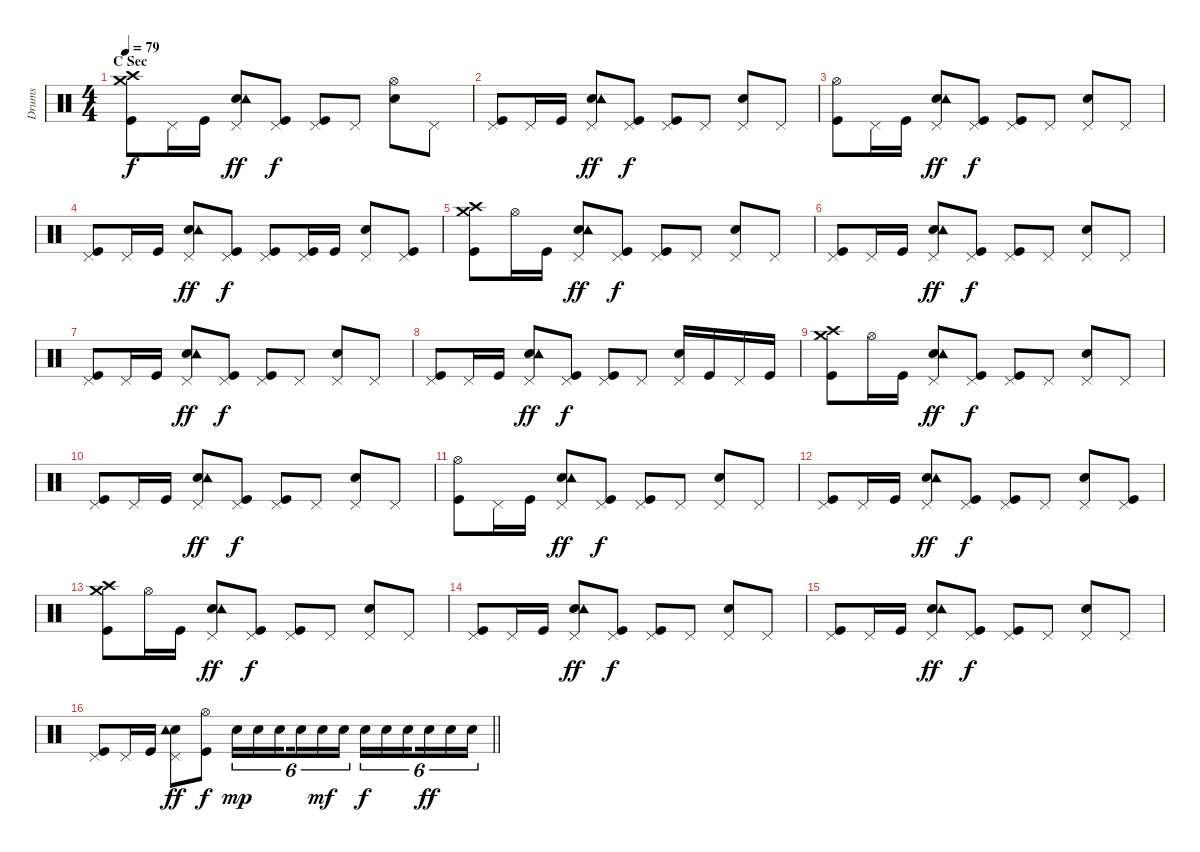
\track ("Drums" "Drums") {instrument percussion}
\staff {score}
\articulation defaults
\ts (4 4)
\section ("" "C Sec")
\tempo 79
\clef neutral
\ks c
("Crash high (hit)" "Crash medium (hit)" "Kick (hit)").8{dy f} "Pedal Hi-Hat (hit)".16 "Kick (hit)".16 ("Electric Snare (hit)" "Pedal Hi-Hat (hit)" "Tambourine (hit)").8{dy ff} ("Pedal Hi-Hat (hit)" "Kick (hit)").8{dy f} ("Pedal Hi-Hat (hit)" "Kick (hit)").8 "Pedal Hi-Hat (hit)".8 ("Electric Snare (hit)" "Hi-Hat (open)").8 "Pedal Hi-Hat (hit)".8 |
("Pedal Hi-Hat (hit)" "Kick (hit)").8 "Pedal Hi-Hat (hit)".16 "Kick (hit)".16 ("Electric Snare (hit)" "Pedal Hi-Hat (hit)" "Tambourine (hit)").8{dy ff} ("Pedal Hi-Hat (hit)" "Kick (hit)").8{dy f} ("Pedal Hi-Hat (hit)" "Kick (hit)").8 "Pedal Hi-Hat (hit)".8 ("Electric Snare (hit)" "Pedal Hi-Hat (hit)").8 "Pedal Hi-Hat (hit)".8 |
("Hi-Hat (open)" "Kick (hit)").8 "Pedal Hi-Hat (hit)".16 "Kick (hit)".16 ("Electric Snare (hit)" "Pedal Hi-Hat (hit)" "Tambourine (hit)").8{dy ff} ("Pedal Hi-Hat (hit)" "Kick (hit)").8{dy f} ("Pedal Hi-Hat (hit)" "Kick (hit)").8 "Pedal Hi-Hat (hit)".8 ("Electric Snare (hit)" "Pedal Hi-Hat (hit)").8 "Pedal Hi-Hat (hit)".8 |
("Pedal Hi-Hat (hit)" "Kick (hit)").8 "Pedal Hi-Hat (hit)".16 "Kick (hit)".16 ("Electric Snare (hit)" "Pedal Hi-Hat (hit)" "Tambourine (hit)").8{dy ff} ("Pedal Hi-Hat (hit)" "Kick (hit)").8{dy f} ("Pedal Hi-Hat (hit)" "Kick (hit)").8 ("Pedal Hi-Hat (hit)" "Kick (hit)").16 "Kick (hit)".16 ("Electric Snare (hit)" "Pedal Hi-Hat (hit)").8 ("Pedal Hi-Hat (hit)" "Kick (hit)").8 |
("Crash high (hit)" "Crash medium (hit)" "Kick (hit)").8 "Hi-Hat (open)".16 "Kick (hit)".16 ("Electric Snare (hit)" "Pedal Hi-Hat (hit)" "Tambourine (hit)").8{dy ff} ("Pedal Hi-Hat (hit)" "Kick (hit)").8{dy f} ("Pedal Hi-Hat (hit)" "Kick (hit)").8 "Pedal Hi-Hat (hit)".8 ("Electric Snare (hit)" "Pedal Hi-Hat (hit)").8 "Pedal Hi-Hat (hit)".8 |
("Pedal Hi-Hat (hit)" "Kick (hit)").8 "Pedal Hi-Hat (hit)".16 "Kick (hit)".16 ("Electric Snare (hit)" "Pedal Hi-Hat (hit)" "Tambourine (hit)").8{dy ff} ("Pedal Hi-Hat (hit)" "Kick (hit)").8{dy f} ("Pedal Hi-Hat (hit)" "Kick (hit)").8 "Pedal Hi-Hat (hit)".8 ("Electric Snare (hit)" "Pedal Hi-Hat (hit)").8 "Pedal Hi-Hat (hit)".8 |
("Pedal Hi-Hat (hit)" "Kick (hit)").8 "Pedal Hi-Hat (hit)".16 "Kick (hit)".16 ("Electric Snare (hit)" "Pedal Hi-Hat (hit)" "Tambourine (hit)").8{dy ff} ("Pedal Hi-Hat (hit)" "Kick (hit)").8{dy f} ("Pedal Hi-Hat (hit)" "Kick (hit)").8 "Pedal Hi-Hat (hit)".8 ("Electric Snare (hit)" "Pedal Hi-Hat (hit)").8 "Pedal Hi-Hat (hit)".8 |
("Pedal Hi-Hat (hit)" "Kick (hit)").8 "Pedal Hi-Hat (hit)".16 "Kick (hit)".16 ("Electric Snare (hit)" "Pedal Hi-Hat (hit)" "Tambourine (hit)").8{dy ff} ("Pedal Hi-Hat (hit)" "Kick (hit)").8{dy f} ("Pedal Hi-Hat (hit)" "Kick (hit)").8 "Pedal Hi-Hat (hit)".8 ("Electric Snare (hit)" "Pedal Hi-Hat (hit)").16 "Kick (hit)".16 "Pedal Hi-Hat (hit)".16 "Kick (hit)".16 |
("Crash high (hit)" "Crash medium (hit)" "Kick (hit)").8 "Hi-Hat (open)".16 "Kick (hit)".16 ("Electric Snare (hit)" "Pedal Hi-Hat (hit)" "Tambourine (hit)").8{dy ff} ("Pedal Hi-Hat (hit)" "Kick (hit)").8{dy f} ("Pedal Hi-Hat (hit)" "Kick (hit)").8 "Pedal Hi-Hat (hit)".8 ("Electric Snare (hit)" "Pedal Hi-Hat (hit)").8 "Pedal Hi-Hat (hit)".8 |
("Pedal Hi-Hat (hit)" "Kick (hit)").8 "Pedal Hi-Hat (hit)".16 "Kick (hit)".16 ("Electric Snare (hit)" "Pedal Hi-Hat (hit)" "Tambourine (hit)").8{dy ff} ("Pedal Hi-Hat (hit)" "Kick (hit)").8{dy f} ("Pedal Hi-Hat (hit)" "Kick (hit)").8 "Pedal Hi-Hat (hit)".8 ("Electric Snare (hit)" "Pedal Hi-Hat (hit)").8 "Pedal Hi-Hat (hit)".8 |
("Hi-Hat (open)" "Kick (hit)").8 "Pedal Hi-Hat (hit)".16 "Kick (hit)".16 ("Electric Snare (hit)" "Pedal Hi-Hat (hit)" "Tambourine (hit)").8{dy ff} ("Pedal Hi-Hat (hit)" "Kick (hit)").8{dy f} ("Pedal Hi-Hat (hit)" "Kick (hit)").8 "Pedal Hi-Hat (hit)".8 ("Electric Snare (hit)" "Pedal Hi-Hat (hit)").8 "Pedal Hi-Hat (hit)".8 |
("Pedal Hi-Hat (hit)" "Kick (hit)").8 "Pedal Hi-Hat (hit)".16 "Kick (hit)".16 ("Electric Snare (hit)" "Pedal Hi-Hat (hit)" "Tambourine (hit)").8{dy ff} ("Pedal Hi-Hat (hit)" "Kick (hit)").8{dy f} ("Pedal Hi-Hat (hit)" "Kick (hit)").8 "Pedal Hi-Hat (hit)".8 ("Electric Snare (hit)" "Pedal Hi-Hat (hit)").8 ("Pedal Hi-Hat (hit)" "Kick (hit)").8 |
("Crash high (hit)" "Crash medium (hit)" "Kick (hit)").8 "Hi-Hat (open)".16 "Kick (hit)".16 ("Electric Snare (hit)" "Pedal Hi-Hat (hit)" "Tambourine (hit)").8{dy ff} ("Pedal Hi-Hat (hit)" "Kick (hit)").8{dy f} ("Pedal Hi-Hat (hit)" "Kick (hit)").8 "Pedal Hi-Hat (hit)".8 ("Electric Snare (hit)" "Pedal Hi-Hat (hit)").8 "Pedal Hi-Hat (hit)".8 |
("Pedal Hi-Hat (hit)" "Kick (hit)").8 "Pedal Hi-Hat (hit)".16 "Kick (hit)".16 ("Electric Snare (hit)" "Pedal Hi-Hat (hit)" "Tambourine (hit)").8{dy ff} ("Pedal Hi-Hat (hit)" "Kick (hit)").8{dy f} ("Pedal Hi-Hat (hit)" "Kick (hit)").8 "Pedal Hi-Hat (hit)".8 ("Electric Snare (hit)" "Pedal Hi-Hat (hit)").8 "Pedal Hi-Hat (hit)".8 |
("Pedal Hi-Hat (hit)" "Kick (hit)").8 "Pedal Hi-Hat (hit)".16 "Kick (hit)".16 ("Electric Snare (hit)" "Pedal Hi-Hat (hit)" "Tambourine (hit)").8{dy ff} ("Pedal Hi-Hat (hit)" "Kick (hit)").8{dy f} ("Pedal Hi-Hat (hit)" "Kick (hit)").8 "Pedal Hi-Hat (hit)".8 ("Electric Snare (hit)" "Pedal Hi-Hat (hit)").8 "Pedal Hi-Hat (hit)".8 |
\barLineRight lightlight
("Pedal Hi-Hat (hit)" "Kick (hit)").8 "Pedal Hi-Hat (hit)".16 "Kick (hit)".16 ("Electric Snare (hit)" "Pedal Hi-Hat (hit)" "Tambourine (hit)").8{dy ff} ("Hi-Hat (open)" "Kick (hit)").8{dy f} "Electric Snare (hit)".16{tu (6 4) dy mp} "Electric Snare (hit)".16{tu (6 4)} "Electric Snare (hit)".16{tu (6 4) beam splitsecondary} "Electric Snare (hit)".16{tu (6 4)} "Electric Snare (hit)".16{tu (6 4) dy mf} "Electric Snare (hit)".16{tu (6 4)} "Electric Snare (hit)".16{tu (6 4) dy f} "Electric Snare (hit)".16{tu (6 4)} "Electric Snare (hit)".16{tu (6 4) beam splitsecondary} "Electric Snare (hit)".16{tu (6 4) dy ff} "Electric Snare (hit)".16{tu (6 4)} "Electric Snare (hit)".16{tu (6 4)}
